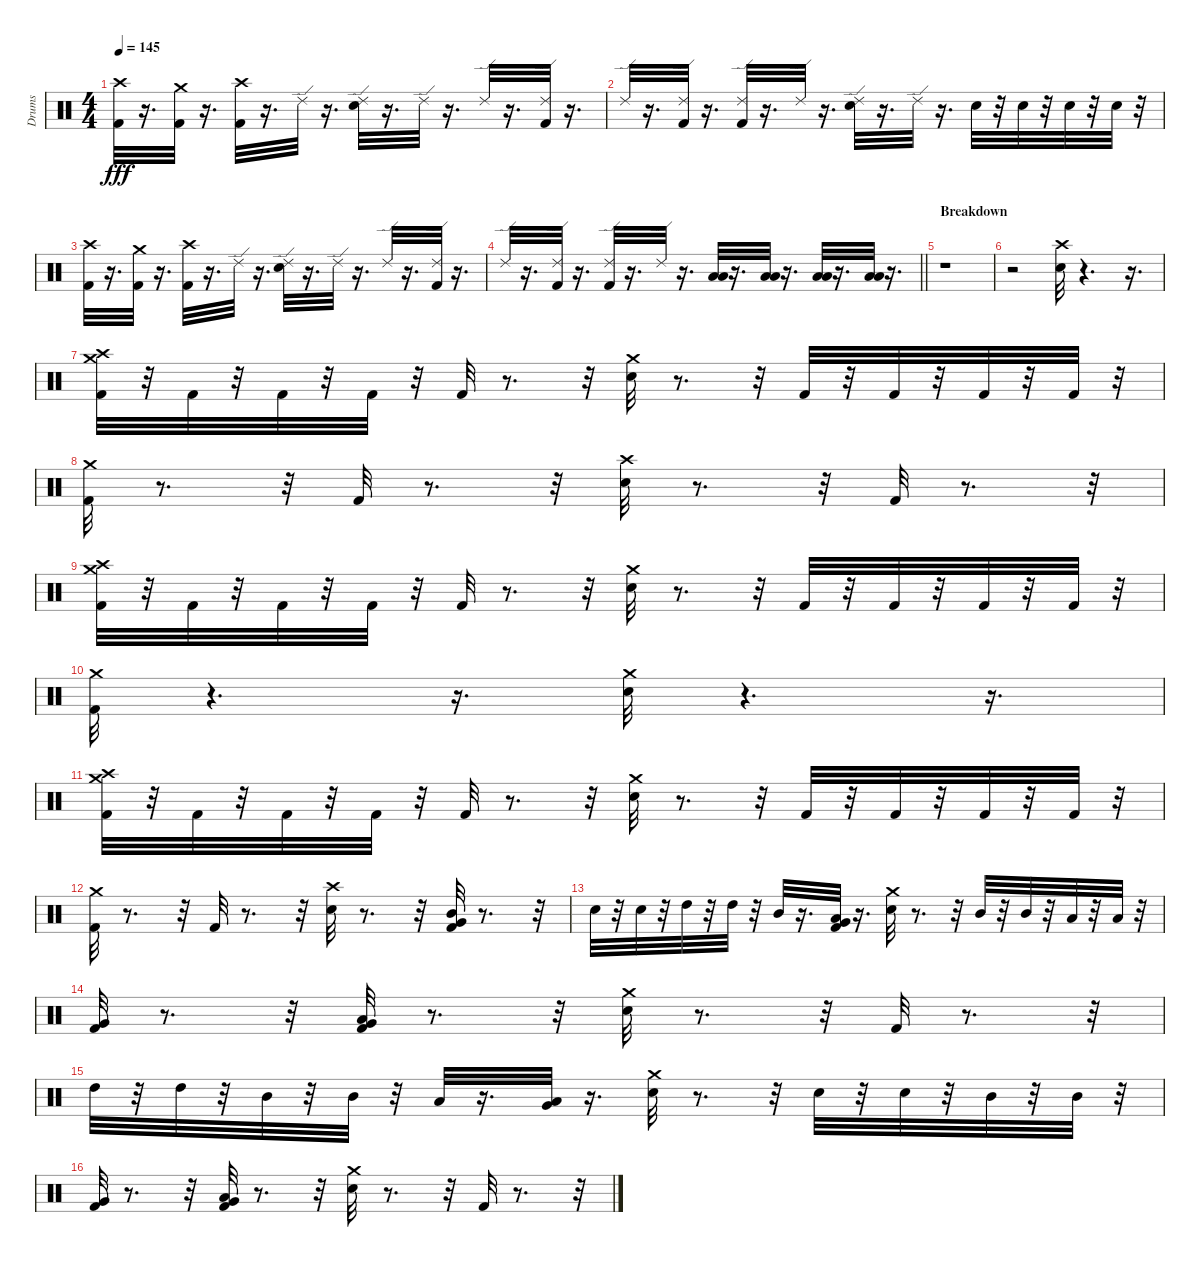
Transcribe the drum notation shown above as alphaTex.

\track ("Drums" "Drums") {instrument percussion}
\staff {score}
\articulation defaults
\ts (4 4)
\tempo 145
\clef neutral
\ks c
("Crash high (hit)" "Kick (hit) 2").32{dy fff} r.16{d} ("Crash medium (hit)" "Kick (hit) 2").32 r.16{d} ("Crash high (hit)" "Kick (hit) 2").32 r.16{d} "Ride (edge) 2".32 r.16{d} ("Ride (edge) 2" "Snare (hit) 2").32 r.16{d} "Ride (edge) 2".32 r.16{d} "Ride (edge) 2".32 r.16{d} ("Ride (edge) 2" "Kick (hit) 2").32 r.16{d} |
"Ride (edge) 2".32 r.16{d} ("Ride (edge) 2" "Kick (hit) 2").32 r.16{d} ("Ride (edge) 2" "Kick (hit) 2").32 r.16{d} "Ride (edge) 2".32 r.16{d} ("Ride (edge) 2" "Snare (hit) 2").32 r.16{d} "Ride (edge) 2".32 r.16{d} "Snare (hit) 2".32 r.32 "Snare (hit) 2".32 r.32 "Snare (hit) 2".32 r.32 "Snare (hit) 2".32 r.32 |
("Crash high (hit)" "Kick (hit) 2").32 r.16{d} ("Crash medium (hit)" "Kick (hit) 2").32 r.16{d} ("Crash high (hit)" "Kick (hit) 2").32 r.16{d} "Ride (edge) 2".32 r.16{d} ("Ride (edge) 2" "Snare (hit) 2").32 r.16{d} "Ride (edge) 2".32 r.16{d} "Ride (edge) 2".32 r.16{d} ("Ride (edge) 2" "Kick (hit) 2").32 r.16{d} |
\barLineRight lightlight "Ride (edge) 2".32
r.16{d} ("Ride (edge) 2" "Kick (hit) 2").32 r.16{d} ("Ride (edge) 2" "Kick (hit) 2").32 r.16{d} "Ride (edge) 2".32 r.16{d} ("Low Tom (hit)" "Low Floor Tom (hit)").32 r.16{d} ("Low Tom (hit)" "Low Floor Tom (hit)").32 r.16{d} ("Low Tom (hit)" "Low Floor Tom (hit)").32 r.16{d} ("Low Floor Tom (hit)" "Low Tom (hit)").32 r.16{d} |
\section ("" "Breakdown")
r.1 |
r.2 ("Crash high (hit)" "Snare (hit) 2").32 r.4{d} r.16{d} |
("Crash medium (hit)" "Crash high (hit)" "Kick (hit) 2").32 r.32 "Kick (hit) 2".32 r.32 "Kick (hit) 2".32 r.32 "Kick (hit) 2".32 r.32 "Kick (hit) 2".32 r.8{d} r.32 ("Crash medium (hit)" "Snare (hit) 2").32 r.8{d} r.32 "Kick (hit) 2".32 r.32 "Kick (hit) 2".32 r.32 "Kick (hit) 2".32 r.32 "Kick (hit) 2".32 r.32 |
("Kick (hit) 2" "Crash medium (hit)").32 r.8{d} r.32 "Kick (hit) 2".32 r.8{d} r.32 ("Crash high (hit)" "Snare (hit) 2").32 r.8{d} r.32 "Kick (hit) 2".32 r.8{d} r.32 |
("Crash medium (hit)" "Crash high (hit)" "Kick (hit) 2").32 r.32 "Kick (hit) 2".32 r.32 "Kick (hit) 2".32 r.32 "Kick (hit) 2".32 r.32 "Kick (hit) 2".32 r.8{d} r.32 ("Crash medium (hit)" "Snare (hit) 2").32 r.8{d} r.32 "Kick (hit) 2".32 r.32 "Kick (hit) 2".32 r.32 "Kick (hit) 2".32 r.32 "Kick (hit) 2".32 r.32 |
("Crash medium (hit)" "Kick (hit) 2").32 r.4{d} r.16{d} ("Snare (hit) 2" "Crash medium (hit)").32 r.4{d} r.16{d} |
("Crash medium (hit)" "Crash high (hit)" "Kick (hit) 2").32 r.32 "Kick (hit) 2".32 r.32 "Kick (hit) 2".32 r.32 "Kick (hit) 2".32 r.32 "Kick (hit) 2".32 r.8{d} r.32 ("Crash medium (hit)" "Snare (hit) 2").32 r.8{d} r.32 "Kick (hit) 2".32 r.32 "Kick (hit) 2".32 r.32 "Kick (hit) 2".32 r.32 "Kick (hit) 2".32 r.32 |
("Kick (hit) 2" "Crash medium (hit)").32 r.8{d} r.32 "Kick (hit) 2".32 r.8{d} r.32 ("Crash high (hit)" "Snare (hit) 2").32 r.8{d} r.32 ("Kick (hit) 2" "Mid Tom (hit)" "Very Low Tom (hit)").32 r.8{d} r.32 |
"Snare (hit) 2".32 r.32 "Snare (hit) 2".32 r.32 "High Tom (hit)".32 r.32 "High Tom (hit)".32 r.32 "Mid Tom (hit)".32 r.16{d} ("Low Tom (hit)" "Very Low Tom (hit)" "Kick (hit) 2").32 r.16{d} ("Crash medium (hit)" "Snare (hit) 2").32 r.8{d} r.32 "Mid Tom (hit)".32 r.32 "Mid Tom (hit)".32 r.32 "Low Tom (hit)".32 r.32 "Low Tom (hit)".32 r.32 |
("Very Low Tom (hit)" "Kick (hit) 2").32 r.8{d} r.32 ("Very Low Tom (hit)" "Low Floor Tom (hit)" "Kick (hit) 2").32 r.8{d} r.32 ("Snare (hit) 2" "Crash medium (hit)").32 r.8{d} r.32 "Kick (hit) 2".32 r.8{d} r.32 |
"High Tom (hit)".32 r.32 "High Tom (hit)".32 r.32 "Mid Tom (hit)".32 r.32 "Mid Tom (hit)".32 r.32 "Low Tom (hit)".32 r.16{d} ("Very Low Tom (hit)" "Low Tom (hit)").32 r.16{d} ("Crash medium (hit)" "Snare (hit) 2").32 r.8{d} r.32 "Snare (hit) 2".32 r.32 "Snare (hit) 2".32 r.32 "Mid Tom (hit)".32 r.32 "Mid Tom (hit)".32 r.32 |
("Kick (hit) 2" "Very Low Tom (hit)").32 r.8{d} r.32 ("Kick (hit) 2" "Very Low Tom (hit)" "Low Floor Tom (hit)").32 r.8{d} r.32 ("Crash medium (hit)" "Snare (hit) 2").32 r.8{d} r.32 "Kick (hit) 2".32 r.8{d} r.32
